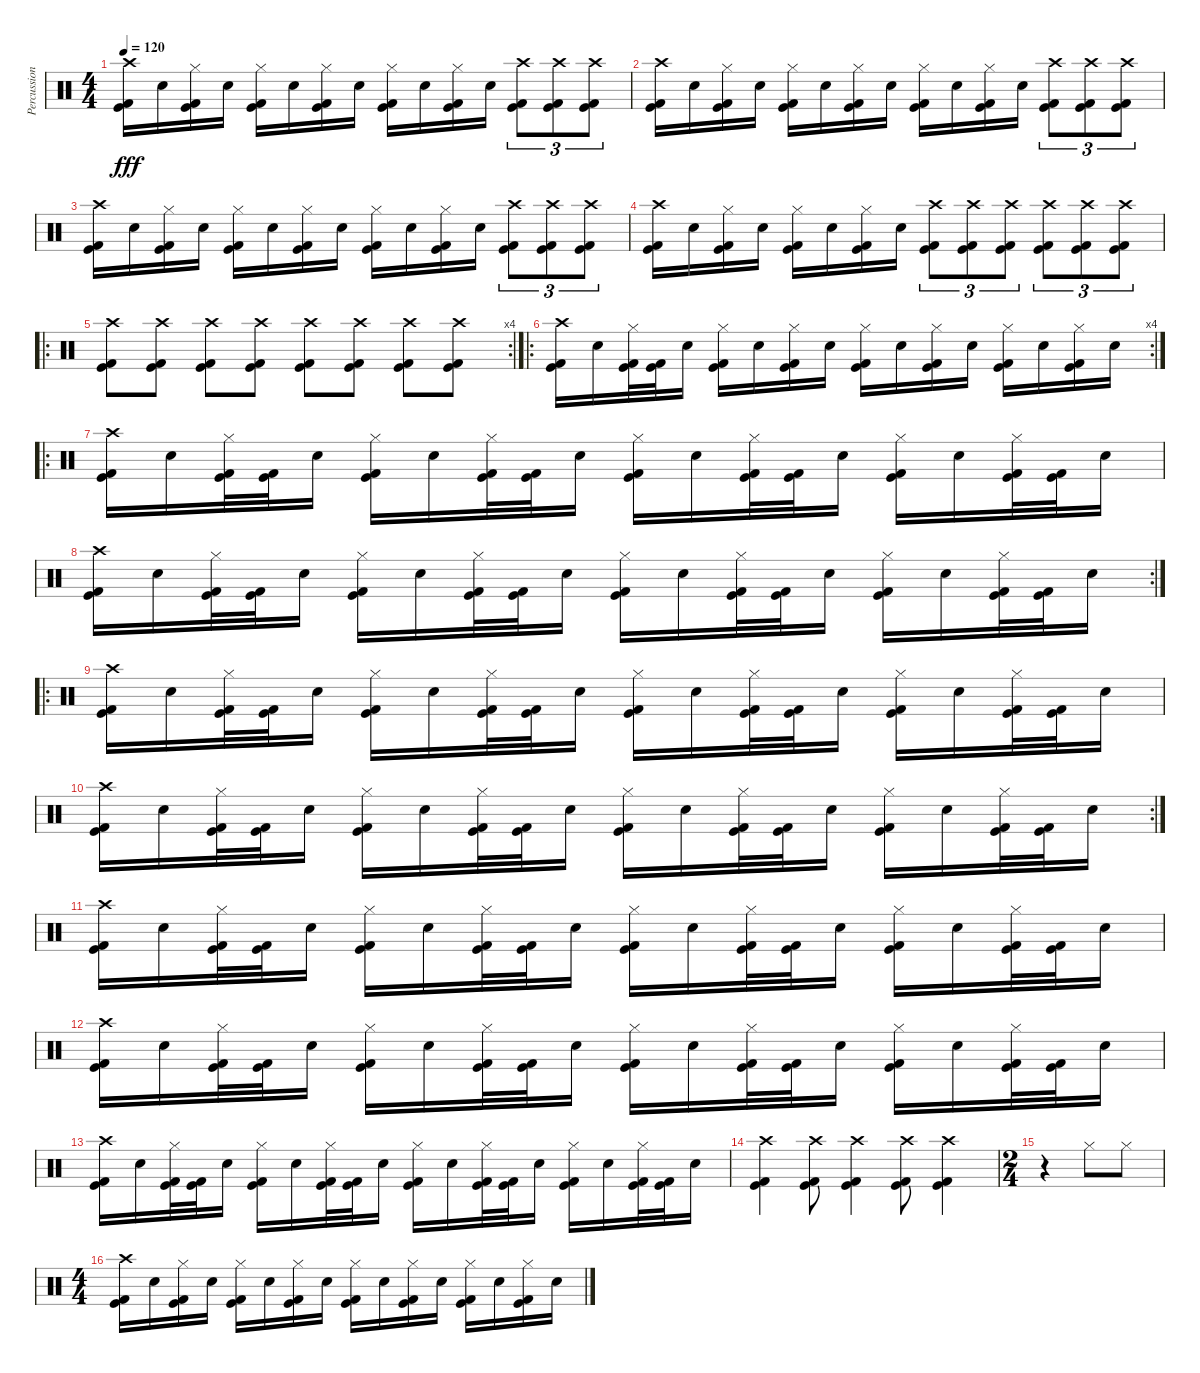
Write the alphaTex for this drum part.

\track ("Percussion" "Percussion") {instrument percussion}
\staff {score}
\articulation defaults
\ts (4 4)
\tempo 120
\clef neutral
\ks c
("Crash high (hit)" "Kick (hit) 2" "Kick (hit)").16{dy fff} "Electric Snare (hit)".16 ("Hi-Hat (closed)" "Kick (hit) 2" "Kick (hit)").16 "Electric Snare (hit)".16 ("Hi-Hat (closed)" "Kick (hit) 2" "Kick (hit)").16 "Electric Snare (hit)".16 ("Hi-Hat (closed)" "Kick (hit) 2" "Kick (hit)").16 "Electric Snare (hit)".16 ("Hi-Hat (closed)" "Kick (hit) 2" "Kick (hit)").16 "Electric Snare (hit)".16 ("Hi-Hat (closed)" "Kick (hit) 2" "Kick (hit)").16 "Electric Snare (hit)".16 ("Crash high (hit)" "Kick (hit) 2" "Kick (hit)").8{tu (3 2)} ("Crash high (hit)" "Kick (hit) 2" "Kick (hit)").8{tu (3 2)} ("Crash high (hit)" "Kick (hit) 2" "Kick (hit)").8{tu (3 2)} |
("Crash high (hit)" "Kick (hit) 2" "Kick (hit)").16 "Electric Snare (hit)".16 ("Hi-Hat (closed)" "Kick (hit) 2" "Kick (hit)").16 "Electric Snare (hit)".16 ("Hi-Hat (closed)" "Kick (hit) 2" "Kick (hit)").16 "Electric Snare (hit)".16 ("Hi-Hat (closed)" "Kick (hit) 2" "Kick (hit)").16 "Electric Snare (hit)".16 ("Hi-Hat (closed)" "Kick (hit) 2" "Kick (hit)").16 "Electric Snare (hit)".16 ("Hi-Hat (closed)" "Kick (hit) 2" "Kick (hit)").16 "Electric Snare (hit)".16 ("Crash high (hit)" "Kick (hit) 2" "Kick (hit)").8{tu (3 2)} ("Crash high (hit)" "Kick (hit) 2" "Kick (hit)").8{tu (3 2)} ("Crash high (hit)" "Kick (hit) 2" "Kick (hit)").8{tu (3 2)} |
("Crash high (hit)" "Kick (hit) 2" "Kick (hit)").16 "Electric Snare (hit)".16 ("Hi-Hat (closed)" "Kick (hit) 2" "Kick (hit)").16 "Electric Snare (hit)".16 ("Hi-Hat (closed)" "Kick (hit) 2" "Kick (hit)").16 "Electric Snare (hit)".16 ("Hi-Hat (closed)" "Kick (hit) 2" "Kick (hit)").16 "Electric Snare (hit)".16 ("Hi-Hat (closed)" "Kick (hit) 2" "Kick (hit)").16 "Electric Snare (hit)".16 ("Hi-Hat (closed)" "Kick (hit) 2" "Kick (hit)").16 "Electric Snare (hit)".16 ("Crash high (hit)" "Kick (hit) 2" "Kick (hit)").8{tu (3 2)} ("Crash high (hit)" "Kick (hit) 2" "Kick (hit)").8{tu (3 2)} ("Crash high (hit)" "Kick (hit) 2" "Kick (hit)").8{tu (3 2)} |
("Crash high (hit)" "Kick (hit) 2" "Kick (hit)").16 "Electric Snare (hit)".16 ("Hi-Hat (closed)" "Kick (hit) 2" "Kick (hit)").16 "Electric Snare (hit)".16 ("Hi-Hat (closed)" "Kick (hit) 2" "Kick (hit)").16 "Electric Snare (hit)".16 ("Hi-Hat (closed)" "Kick (hit) 2" "Kick (hit)").16 "Electric Snare (hit)".16 ("Crash high (hit)" "Kick (hit) 2" "Kick (hit)").8{tu (3 2)} ("Crash high (hit)" "Kick (hit) 2" "Kick (hit)").8{tu (3 2)} ("Crash high (hit)" "Kick (hit) 2" "Kick (hit)").8{tu (3 2)} ("Crash high (hit)" "Kick (hit) 2" "Kick (hit)").8{tu (3 2)} ("Crash high (hit)" "Kick (hit) 2" "Kick (hit)").8{tu (3 2)} ("Crash high (hit)" "Kick (hit) 2" "Kick (hit)").8{tu (3 2)} |
\ro
\rc 4
("Crash high (hit)" "Kick (hit) 2" "Kick (hit)").8 ("Crash high (hit)" "Kick (hit) 2" "Kick (hit)").8 ("Crash high (hit)" "Kick (hit) 2" "Kick (hit)").8 ("Crash high (hit)" "Kick (hit) 2" "Kick (hit)").8 ("Crash high (hit)" "Kick (hit) 2" "Kick (hit)").8 ("Crash high (hit)" "Kick (hit) 2" "Kick (hit)").8 ("Crash high (hit)" "Kick (hit) 2" "Kick (hit)").8 ("Crash high (hit)" "Kick (hit) 2" "Kick (hit)").8 |
\ro
\rc 4
("Crash high (hit)" "Kick (hit) 2" "Kick (hit)").16 "Electric Snare (hit)".16 ("Hi-Hat (closed)" "Kick (hit)" "Kick (hit) 2").32 ("Kick (hit)" "Kick (hit) 2").32 "Electric Snare (hit)".16 ("Hi-Hat (closed)" "Kick (hit)" "Kick (hit) 2").16 "Electric Snare (hit)".16 ("Hi-Hat (closed)" "Kick (hit)" "Kick (hit) 2").16 "Electric Snare (hit)".16 ("Hi-Hat (closed)" "Kick (hit)" "Kick (hit) 2").16 "Electric Snare (hit)".16 ("Hi-Hat (closed)" "Kick (hit)" "Kick (hit) 2").16 "Electric Snare (hit)".16 ("Hi-Hat (closed)" "Kick (hit)" "Kick (hit) 2").16 "Electric Snare (hit)".16 ("Hi-Hat (closed)" "Kick (hit)" "Kick (hit) 2").16 "Electric Snare (hit)".16 |
\ro
("Crash high (hit)" "Kick (hit) 2" "Kick (hit)").16 "Electric Snare (hit)".16 ("Hi-Hat (closed)" "Kick (hit)" "Kick (hit) 2").32 ("Kick (hit)" "Kick (hit) 2").32 "Electric Snare (hit)".16 ("Hi-Hat (closed)" "Kick (hit)" "Kick (hit) 2").16 "Electric Snare (hit)".16 ("Hi-Hat (closed)" "Kick (hit)" "Kick (hit) 2").32 ("Kick (hit)" "Kick (hit) 2").32 "Electric Snare (hit)".16 ("Hi-Hat (closed)" "Kick (hit)" "Kick (hit) 2").16 "Electric Snare (hit)".16 ("Hi-Hat (closed)" "Kick (hit)" "Kick (hit) 2").32 ("Kick (hit)" "Kick (hit) 2").32 "Electric Snare (hit)".16 ("Hi-Hat (closed)" "Kick (hit)" "Kick (hit) 2").16 "Electric Snare (hit)".16 ("Hi-Hat (closed)" "Kick (hit)" "Kick (hit) 2").32 ("Kick (hit)" "Kick (hit) 2").32 "Electric Snare (hit)".16 |
\rc 2
("Crash high (hit)" "Kick (hit) 2" "Kick (hit)").16 "Electric Snare (hit)".16 ("Hi-Hat (closed)" "Kick (hit)" "Kick (hit) 2").32 ("Kick (hit)" "Kick (hit) 2").32 "Electric Snare (hit)".16 ("Hi-Hat (closed)" "Kick (hit)" "Kick (hit) 2").16 "Electric Snare (hit)".16 ("Hi-Hat (closed)" "Kick (hit)" "Kick (hit) 2").32 ("Kick (hit)" "Kick (hit) 2").32 "Electric Snare (hit)".16 ("Hi-Hat (closed)" "Kick (hit)" "Kick (hit) 2").16 "Electric Snare (hit)".16 ("Hi-Hat (closed)" "Kick (hit)" "Kick (hit) 2").32 ("Kick (hit)" "Kick (hit) 2").32 "Electric Snare (hit)".16 ("Hi-Hat (closed)" "Kick (hit)" "Kick (hit) 2").16 "Electric Snare (hit)".16 ("Hi-Hat (closed)" "Kick (hit)" "Kick (hit) 2").32 ("Kick (hit)" "Kick (hit) 2").32 "Electric Snare (hit)".16 |
\ro
("Crash high (hit)" "Kick (hit) 2" "Kick (hit)").16 "Electric Snare (hit)".16 ("Hi-Hat (closed)" "Kick (hit)" "Kick (hit) 2").32 ("Kick (hit)" "Kick (hit) 2").32 "Electric Snare (hit)".16 ("Hi-Hat (closed)" "Kick (hit)" "Kick (hit) 2").16 "Electric Snare (hit)".16 ("Hi-Hat (closed)" "Kick (hit)" "Kick (hit) 2").32 ("Kick (hit)" "Kick (hit) 2").32 "Electric Snare (hit)".16 ("Hi-Hat (closed)" "Kick (hit)" "Kick (hit) 2").16 "Electric Snare (hit)".16 ("Hi-Hat (closed)" "Kick (hit)" "Kick (hit) 2").32 ("Kick (hit)" "Kick (hit) 2").32 "Electric Snare (hit)".16 ("Hi-Hat (closed)" "Kick (hit)" "Kick (hit) 2").16 "Electric Snare (hit)".16 ("Hi-Hat (closed)" "Kick (hit)" "Kick (hit) 2").32 ("Kick (hit)" "Kick (hit) 2").32 "Electric Snare (hit)".16 |
\rc 2
("Crash high (hit)" "Kick (hit) 2" "Kick (hit)").16 "Electric Snare (hit)".16 ("Hi-Hat (closed)" "Kick (hit)" "Kick (hit) 2").32 ("Kick (hit)" "Kick (hit) 2").32 "Electric Snare (hit)".16 ("Hi-Hat (closed)" "Kick (hit)" "Kick (hit) 2").16 "Electric Snare (hit)".16 ("Hi-Hat (closed)" "Kick (hit)" "Kick (hit) 2").32 ("Kick (hit)" "Kick (hit) 2").32 "Electric Snare (hit)".16 ("Hi-Hat (closed)" "Kick (hit)" "Kick (hit) 2").16 "Electric Snare (hit)".16 ("Hi-Hat (closed)" "Kick (hit)" "Kick (hit) 2").32 ("Kick (hit)" "Kick (hit) 2").32 "Electric Snare (hit)".16 ("Hi-Hat (closed)" "Kick (hit)" "Kick (hit) 2").16 "Electric Snare (hit)".16 ("Hi-Hat (closed)" "Kick (hit)" "Kick (hit) 2").32 ("Kick (hit)" "Kick (hit) 2").32 "Electric Snare (hit)".16 |
("Crash high (hit)" "Kick (hit) 2" "Kick (hit)").16 "Electric Snare (hit)".16 ("Hi-Hat (closed)" "Kick (hit)" "Kick (hit) 2").32 ("Kick (hit)" "Kick (hit) 2").32 "Electric Snare (hit)".16 ("Hi-Hat (closed)" "Kick (hit)" "Kick (hit) 2").16 "Electric Snare (hit)".16 ("Hi-Hat (closed)" "Kick (hit)" "Kick (hit) 2").32 ("Kick (hit)" "Kick (hit) 2").32 "Electric Snare (hit)".16 ("Hi-Hat (closed)" "Kick (hit)" "Kick (hit) 2").16 "Electric Snare (hit)".16 ("Hi-Hat (closed)" "Kick (hit)" "Kick (hit) 2").32 ("Kick (hit)" "Kick (hit) 2").32 "Electric Snare (hit)".16 ("Hi-Hat (closed)" "Kick (hit)" "Kick (hit) 2").16 "Electric Snare (hit)".16 ("Hi-Hat (closed)" "Kick (hit)" "Kick (hit) 2").32 ("Kick (hit)" "Kick (hit) 2").32 "Electric Snare (hit)".16 |
("Crash high (hit)" "Kick (hit) 2" "Kick (hit)").16 "Electric Snare (hit)".16 ("Hi-Hat (closed)" "Kick (hit)" "Kick (hit) 2").32 ("Kick (hit)" "Kick (hit) 2").32 "Electric Snare (hit)".16 ("Hi-Hat (closed)" "Kick (hit)" "Kick (hit) 2").16 "Electric Snare (hit)".16 ("Hi-Hat (closed)" "Kick (hit)" "Kick (hit) 2").32 ("Kick (hit)" "Kick (hit) 2").32 "Electric Snare (hit)".16 ("Hi-Hat (closed)" "Kick (hit)" "Kick (hit) 2").16 "Electric Snare (hit)".16 ("Hi-Hat (closed)" "Kick (hit)" "Kick (hit) 2").32 ("Kick (hit)" "Kick (hit) 2").32 "Electric Snare (hit)".16 ("Hi-Hat (closed)" "Kick (hit)" "Kick (hit) 2").16 "Electric Snare (hit)".16 ("Hi-Hat (closed)" "Kick (hit)" "Kick (hit) 2").32 ("Kick (hit)" "Kick (hit) 2").32 "Electric Snare (hit)".16 |
("Crash high (hit)" "Kick (hit) 2" "Kick (hit)").16 "Electric Snare (hit)".16 ("Hi-Hat (closed)" "Kick (hit)" "Kick (hit) 2").32 ("Kick (hit)" "Kick (hit) 2").32 "Electric Snare (hit)".16 ("Hi-Hat (closed)" "Kick (hit)" "Kick (hit) 2").16 "Electric Snare (hit)".16 ("Hi-Hat (closed)" "Kick (hit)" "Kick (hit) 2").32 ("Kick (hit)" "Kick (hit) 2").32 "Electric Snare (hit)".16 ("Hi-Hat (closed)" "Kick (hit)" "Kick (hit) 2").16 "Electric Snare (hit)".16 ("Hi-Hat (closed)" "Kick (hit)" "Kick (hit) 2").32 ("Kick (hit)" "Kick (hit) 2").32 "Electric Snare (hit)".16 ("Hi-Hat (closed)" "Kick (hit)" "Kick (hit) 2").16 "Electric Snare (hit)".16 ("Hi-Hat (closed)" "Kick (hit)" "Kick (hit) 2").32 ("Kick (hit)" "Kick (hit) 2").32 "Electric Snare (hit)".16 |
("Crash high (hit)" "Kick (hit)" "Kick (hit) 2").4 ("Crash high (hit)" "Kick (hit)" "Kick (hit) 2").8 ("Crash high (hit)" "Kick (hit)" "Kick (hit) 2").4 ("Crash high (hit)" "Kick (hit)" "Kick (hit) 2").8 ("Crash high (hit)" "Kick (hit)" "Kick (hit) 2").4 |
\ts (2 4)
r.4 "Hi-Hat (closed)".8 "Hi-Hat (closed)".8 |
\ts (4 4)
("Crash high (hit)" "Kick (hit) 2" "Kick (hit)").16 "Electric Snare (hit)".16 ("Hi-Hat (closed)" "Kick (hit) 2" "Kick (hit)").16 "Electric Snare (hit)".16 ("Hi-Hat (closed)" "Kick (hit) 2" "Kick (hit)").16 "Electric Snare (hit)".16 ("Hi-Hat (closed)" "Kick (hit) 2" "Kick (hit)").16 "Electric Snare (hit)".16 ("Hi-Hat (closed)" "Kick (hit) 2" "Kick (hit)").16 "Electric Snare (hit)".16 ("Hi-Hat (closed)" "Kick (hit) 2" "Kick (hit)").16 "Electric Snare (hit)".16 ("Hi-Hat (closed)" "Kick (hit) 2" "Kick (hit)").16 "Electric Snare (hit)".16 ("Hi-Hat (closed)" "Kick (hit) 2" "Kick (hit)").16 "Electric Snare (hit)".16
